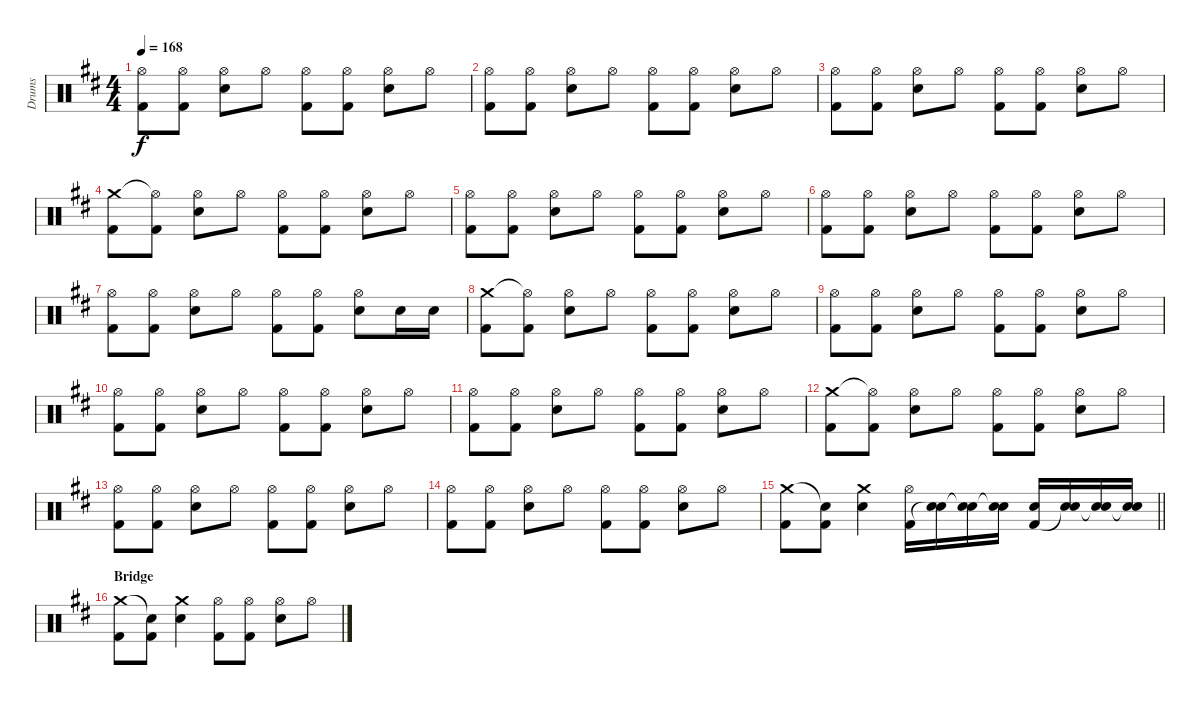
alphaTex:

\track ("Drums" "Drums") {instrument percussion}
\staff {score}
\articulation defaults
\ts (4 4)
\tempo 168
\clef neutral
\ks d
("Hi-Hat (open)" "Kick (hit) 2").8{dy f} ("Hi-Hat (open)" "Kick (hit) 2").8 ("Hi-Hat (open)" "Electric Snare (hit)").8 "Hi-Hat (open)".8 ("Hi-Hat (open)" "Kick (hit) 2").8 ("Hi-Hat (open)" "Kick (hit) 2").8 ("Hi-Hat (open)" "Electric Snare (hit)").8 "Hi-Hat (open)".8 |
("Hi-Hat (open)" "Kick (hit) 2").8 ("Hi-Hat (open)" "Kick (hit) 2").8 ("Hi-Hat (open)" "Electric Snare (hit)").8 "Hi-Hat (open)".8 ("Hi-Hat (open)" "Kick (hit) 2").8 ("Hi-Hat (open)" "Kick (hit) 2").8 ("Hi-Hat (open)" "Electric Snare (hit)").8 "Hi-Hat (open)".8 |
("Hi-Hat (open)" "Kick (hit) 2").8 ("Hi-Hat (open)" "Kick (hit) 2").8 ("Hi-Hat (open)" "Electric Snare (hit)").8 "Hi-Hat (open)".8 ("Hi-Hat (open)" "Kick (hit) 2").8 ("Hi-Hat (open)" "Kick (hit) 2").8 ("Hi-Hat (open)" "Electric Snare (hit)").8 "Hi-Hat (open)".8 |
("Crash medium (hit)" "Kick (hit) 2").8 ("Hi-Hat (open)"{t} "Kick (hit) 2").8 ("Hi-Hat (open)" "Electric Snare (hit)").8 "Hi-Hat (open)".8 ("Hi-Hat (open)" "Kick (hit) 2").8 ("Hi-Hat (open)" "Kick (hit) 2").8 ("Hi-Hat (open)" "Electric Snare (hit)").8 "Hi-Hat (open)".8 |
("Hi-Hat (open)" "Kick (hit) 2").8 ("Hi-Hat (open)" "Kick (hit) 2").8 ("Hi-Hat (open)" "Electric Snare (hit)").8 "Hi-Hat (open)".8 ("Hi-Hat (open)" "Kick (hit) 2").8 ("Hi-Hat (open)" "Kick (hit) 2").8 ("Hi-Hat (open)" "Electric Snare (hit)").8 "Hi-Hat (open)".8 |
("Hi-Hat (open)" "Kick (hit) 2").8 ("Hi-Hat (open)" "Kick (hit) 2").8 ("Hi-Hat (open)" "Electric Snare (hit)").8 "Hi-Hat (open)".8 ("Hi-Hat (open)" "Kick (hit) 2").8 ("Hi-Hat (open)" "Kick (hit) 2").8 ("Hi-Hat (open)" "Electric Snare (hit)").8 "Hi-Hat (open)".8 |
("Hi-Hat (open)" "Kick (hit) 2").8 ("Hi-Hat (open)" "Kick (hit) 2").8 ("Hi-Hat (open)" "Electric Snare (hit)").8 "Hi-Hat (open)".8 ("Hi-Hat (open)" "Kick (hit) 2").8 ("Hi-Hat (open)" "Kick (hit) 2").8 ("Hi-Hat (open)" "Electric Snare (hit)").8 "Electric Snare (hit)".16 "Electric Snare (hit)".16 |
("Crash medium (hit)" "Kick (hit) 2").8 ("Hi-Hat (open)"{t} "Kick (hit) 2").8 ("Hi-Hat (open)" "Electric Snare (hit)").8 "Hi-Hat (open)".8 ("Hi-Hat (open)" "Kick (hit) 2").8 ("Hi-Hat (open)" "Kick (hit) 2").8 ("Hi-Hat (open)" "Electric Snare (hit)").8 "Hi-Hat (open)".8 |
("Hi-Hat (open)" "Kick (hit) 2").8 ("Hi-Hat (open)" "Kick (hit) 2").8 ("Hi-Hat (open)" "Electric Snare (hit)").8 "Hi-Hat (open)".8 ("Hi-Hat (open)" "Kick (hit) 2").8 ("Hi-Hat (open)" "Kick (hit) 2").8 ("Hi-Hat (open)" "Electric Snare (hit)").8 "Hi-Hat (open)".8 |
("Hi-Hat (open)" "Kick (hit) 2").8 ("Hi-Hat (open)" "Kick (hit) 2").8 ("Hi-Hat (open)" "Electric Snare (hit)").8 "Hi-Hat (open)".8 ("Hi-Hat (open)" "Kick (hit) 2").8 ("Hi-Hat (open)" "Kick (hit) 2").8 ("Hi-Hat (open)" "Electric Snare (hit)").8 "Hi-Hat (open)".8 |
("Hi-Hat (open)" "Kick (hit) 2").8 ("Hi-Hat (open)" "Kick (hit) 2").8 ("Hi-Hat (open)" "Electric Snare (hit)").8 "Hi-Hat (open)".8 ("Hi-Hat (open)" "Kick (hit) 2").8 ("Hi-Hat (open)" "Kick (hit) 2").8 ("Hi-Hat (open)" "Electric Snare (hit)").8 "Hi-Hat (open)".8 |
("Crash medium (hit)" "Kick (hit) 2").8 ("Hi-Hat (open)"{t} "Kick (hit) 2").8 ("Hi-Hat (open)" "Electric Snare (hit)").8 "Hi-Hat (open)".8 ("Hi-Hat (open)" "Kick (hit) 2").8 ("Hi-Hat (open)" "Kick (hit) 2").8 ("Hi-Hat (open)" "Electric Snare (hit)").8 "Hi-Hat (open)".8 |
("Hi-Hat (open)" "Kick (hit) 2").8 ("Hi-Hat (open)" "Kick (hit) 2").8 ("Hi-Hat (open)" "Electric Snare (hit)").8 "Hi-Hat (open)".8 ("Hi-Hat (open)" "Kick (hit) 2").8 ("Hi-Hat (open)" "Kick (hit) 2").8 ("Hi-Hat (open)" "Electric Snare (hit)").8 "Hi-Hat (open)".8 |
("Hi-Hat (open)" "Kick (hit) 2").8 ("Hi-Hat (open)" "Kick (hit) 2").8 ("Hi-Hat (open)" "Electric Snare (hit)").8 "Hi-Hat (open)".8 ("Hi-Hat (open)" "Kick (hit) 2").8 ("Hi-Hat (open)" "Kick (hit) 2").8 ("Hi-Hat (open)" "Electric Snare (hit)").8 "Hi-Hat (open)".8 |
\barLineRight lightlight
("Crash medium (hit)" "Kick (hit) 2").8 ("Snare (hit)"{t} "Kick (hit) 2").8 ("Crash medium (hit)" "Electric Snare (hit)").4 ("Hi-Hat (open)" "Kick (hit) 2").16 ("Electric Snare (hit)" "Snare (hit)"{t}).16 ("Electric Snare (hit)" "Snare (hit)"{t}).16 ("Electric Snare (hit)" "Snare (hit)"{t}).16 ("Electric Snare (hit)" "Kick (hit) 2").16 ("Electric Snare (hit)" "Snare (hit)"{t}).16 ("Electric Snare (hit)" "Snare (hit)"{t}).16 ("Electric Snare (hit)" "Snare (hit)"{t}).16 |
\section ("" "Bridge")
("Crash medium (hit)" "Kick (hit) 2").8 ("Snare (hit)"{t} "Kick (hit) 2").8 ("Crash medium (hit)" "Electric Snare (hit)").4 ("Hi-Hat (open)" "Kick (hit) 2").8 ("Hi-Hat (open)" "Kick (hit) 2").8 ("Hi-Hat (open)" "Electric Snare (hit)").8 "Hi-Hat (open)".8
